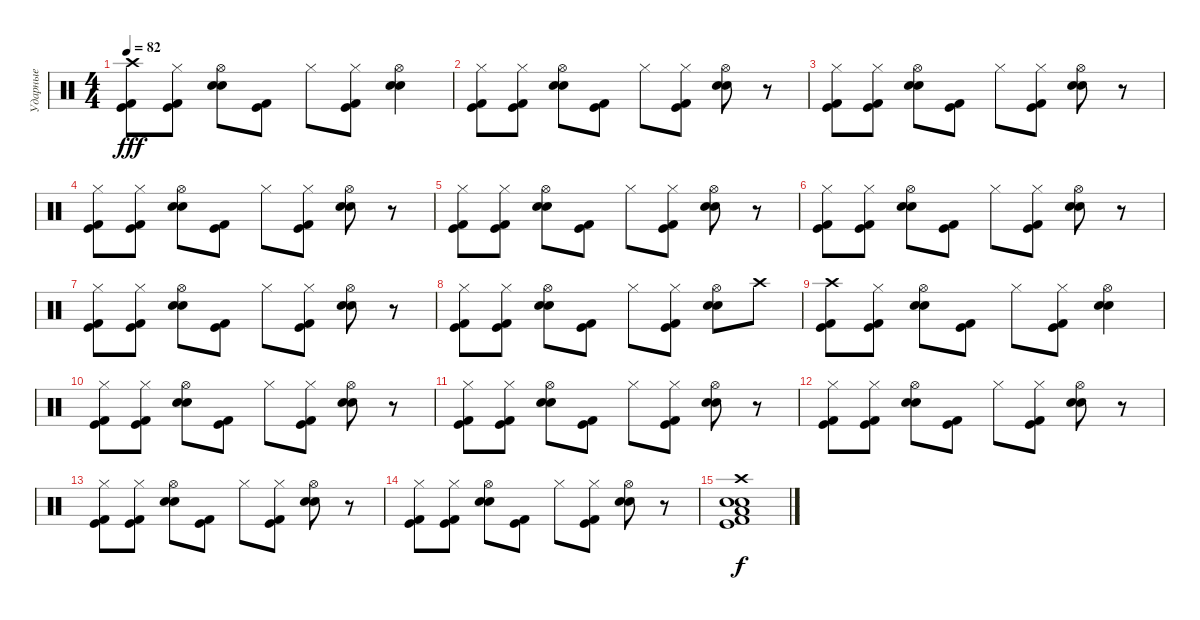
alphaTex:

\track ("Ударные" "Ударные") {instrument percussion}
\staff {score}
\articulation defaults
\ts (4 4)
\tempo 82
\clef neutral
\ks c
("Crash high (hit)" "Kick (hit) 2" "Kick (hit)").8{dy fff} ("Hi-Hat (closed)" "Kick (hit) 2" "Kick (hit)").8 ("Hi-Hat (open)" "Electric Snare (hit)" "Snare (hit) 2").8 ("Kick (hit) 2" "Kick (hit)").8 "Hi-Hat (closed)".8 ("Hi-Hat (closed)" "Kick (hit) 2" "Kick (hit)").8 ("Hi-Hat (open)" "Electric Snare (hit)" "Snare (hit) 2").4 |
("Hi-Hat (closed)" "Kick (hit) 2" "Kick (hit)").8 ("Hi-Hat (closed)" "Kick (hit) 2" "Kick (hit)").8 ("Hi-Hat (open)" "Electric Snare (hit)" "Snare (hit) 2").8 ("Kick (hit) 2" "Kick (hit)").8 "Hi-Hat (closed)".8 ("Hi-Hat (closed)" "Kick (hit) 2" "Kick (hit)").8 ("Hi-Hat (open)" "Electric Snare (hit)" "Snare (hit) 2").8 r.8 |
("Hi-Hat (closed)" "Kick (hit) 2" "Kick (hit)").8 ("Hi-Hat (closed)" "Kick (hit) 2" "Kick (hit)").8 ("Hi-Hat (open)" "Electric Snare (hit)" "Snare (hit) 2").8 ("Kick (hit) 2" "Kick (hit)").8 "Hi-Hat (closed)".8 ("Hi-Hat (closed)" "Kick (hit) 2" "Kick (hit)").8 ("Hi-Hat (open)" "Electric Snare (hit)" "Snare (hit) 2").8 r.8 |
("Hi-Hat (closed)" "Kick (hit) 2" "Kick (hit)").8 ("Hi-Hat (closed)" "Kick (hit) 2" "Kick (hit)").8 ("Hi-Hat (open)" "Electric Snare (hit)" "Snare (hit) 2").8 ("Kick (hit) 2" "Kick (hit)").8 "Hi-Hat (closed)".8 ("Hi-Hat (closed)" "Kick (hit) 2" "Kick (hit)").8 ("Hi-Hat (open)" "Electric Snare (hit)" "Snare (hit) 2").8 r.8 |
("Hi-Hat (closed)" "Kick (hit) 2" "Kick (hit)").8 ("Hi-Hat (closed)" "Kick (hit) 2" "Kick (hit)").8 ("Hi-Hat (open)" "Electric Snare (hit)" "Snare (hit) 2").8 ("Kick (hit) 2" "Kick (hit)").8 "Hi-Hat (closed)".8 ("Hi-Hat (closed)" "Kick (hit) 2" "Kick (hit)").8 ("Hi-Hat (open)" "Electric Snare (hit)" "Snare (hit) 2").8 r.8 |
("Hi-Hat (closed)" "Kick (hit) 2" "Kick (hit)").8 ("Hi-Hat (closed)" "Kick (hit) 2" "Kick (hit)").8 ("Hi-Hat (open)" "Electric Snare (hit)" "Snare (hit) 2").8 ("Kick (hit) 2" "Kick (hit)").8 "Hi-Hat (closed)".8 ("Hi-Hat (closed)" "Kick (hit) 2" "Kick (hit)").8 ("Hi-Hat (open)" "Electric Snare (hit)" "Snare (hit) 2").8 r.8 |
("Hi-Hat (closed)" "Kick (hit) 2" "Kick (hit)").8 ("Hi-Hat (closed)" "Kick (hit) 2" "Kick (hit)").8 ("Hi-Hat (open)" "Electric Snare (hit)" "Snare (hit) 2").8 ("Kick (hit) 2" "Kick (hit)").8 "Hi-Hat (closed)".8 ("Hi-Hat (closed)" "Kick (hit) 2" "Kick (hit)").8 ("Hi-Hat (open)" "Electric Snare (hit)" "Snare (hit) 2").8 r.8 |
("Hi-Hat (closed)" "Kick (hit) 2" "Kick (hit)").8 ("Hi-Hat (closed)" "Kick (hit) 2" "Kick (hit)").8 ("Hi-Hat (open)" "Electric Snare (hit)" "Snare (hit) 2").8 ("Kick (hit) 2" "Kick (hit)").8 "Hi-Hat (closed)".8 ("Hi-Hat (closed)" "Kick (hit) 2" "Kick (hit)").8 ("Hi-Hat (open)" "Electric Snare (hit)" "Snare (hit) 2").8 "Crash high (hit)".8 |
("Crash high (hit)" "Kick (hit) 2" "Kick (hit)").8 ("Hi-Hat (closed)" "Kick (hit) 2" "Kick (hit)").8 ("Hi-Hat (open)" "Electric Snare (hit)" "Snare (hit) 2").8 ("Kick (hit) 2" "Kick (hit)").8 "Hi-Hat (closed)".8 ("Hi-Hat (closed)" "Kick (hit) 2" "Kick (hit)").8 ("Hi-Hat (open)" "Electric Snare (hit)" "Snare (hit) 2").4 |
("Hi-Hat (closed)" "Kick (hit) 2" "Kick (hit)").8 ("Hi-Hat (closed)" "Kick (hit) 2" "Kick (hit)").8 ("Hi-Hat (open)" "Electric Snare (hit)" "Snare (hit) 2").8 ("Kick (hit) 2" "Kick (hit)").8 "Hi-Hat (closed)".8 ("Hi-Hat (closed)" "Kick (hit) 2" "Kick (hit)").8 ("Hi-Hat (open)" "Electric Snare (hit)" "Snare (hit) 2").8 r.8 |
("Hi-Hat (closed)" "Kick (hit) 2" "Kick (hit)").8 ("Hi-Hat (closed)" "Kick (hit) 2" "Kick (hit)").8 ("Hi-Hat (open)" "Electric Snare (hit)" "Snare (hit) 2").8 ("Kick (hit) 2" "Kick (hit)").8 "Hi-Hat (closed)".8 ("Hi-Hat (closed)" "Kick (hit) 2" "Kick (hit)").8 ("Hi-Hat (open)" "Electric Snare (hit)" "Snare (hit) 2").8 r.8 |
("Hi-Hat (closed)" "Kick (hit) 2" "Kick (hit)").8 ("Hi-Hat (closed)" "Kick (hit) 2" "Kick (hit)").8 ("Hi-Hat (open)" "Electric Snare (hit)" "Snare (hit) 2").8 ("Kick (hit) 2" "Kick (hit)").8 "Hi-Hat (closed)".8 ("Hi-Hat (closed)" "Kick (hit) 2" "Kick (hit)").8 ("Hi-Hat (open)" "Electric Snare (hit)" "Snare (hit) 2").8 r.8 |
("Hi-Hat (closed)" "Kick (hit) 2" "Kick (hit)").8 ("Hi-Hat (closed)" "Kick (hit) 2" "Kick (hit)").8 ("Hi-Hat (open)" "Electric Snare (hit)" "Snare (hit) 2").8 ("Kick (hit) 2" "Kick (hit)").8 "Hi-Hat (closed)".8 ("Hi-Hat (closed)" "Kick (hit) 2" "Kick (hit)").8 ("Hi-Hat (open)" "Electric Snare (hit)" "Snare (hit) 2").8 r.8 |
("Hi-Hat (closed)" "Kick (hit) 2" "Kick (hit)").8 ("Hi-Hat (closed)" "Kick (hit) 2" "Kick (hit)").8 ("Hi-Hat (open)" "Electric Snare (hit)" "Snare (hit) 2").8 ("Kick (hit) 2" "Kick (hit)").8 "Hi-Hat (closed)".8 ("Hi-Hat (closed)" "Kick (hit) 2" "Kick (hit)").8 ("Hi-Hat (open)" "Electric Snare (hit)" "Snare (hit) 2").8 r.8 |
("Crash high (hit)" "Electric Snare (hit)" "Snare (hit) 2" "Kick (hit) 2" "Kick (hit)" "Low Tom (hit)").1{dy f}
